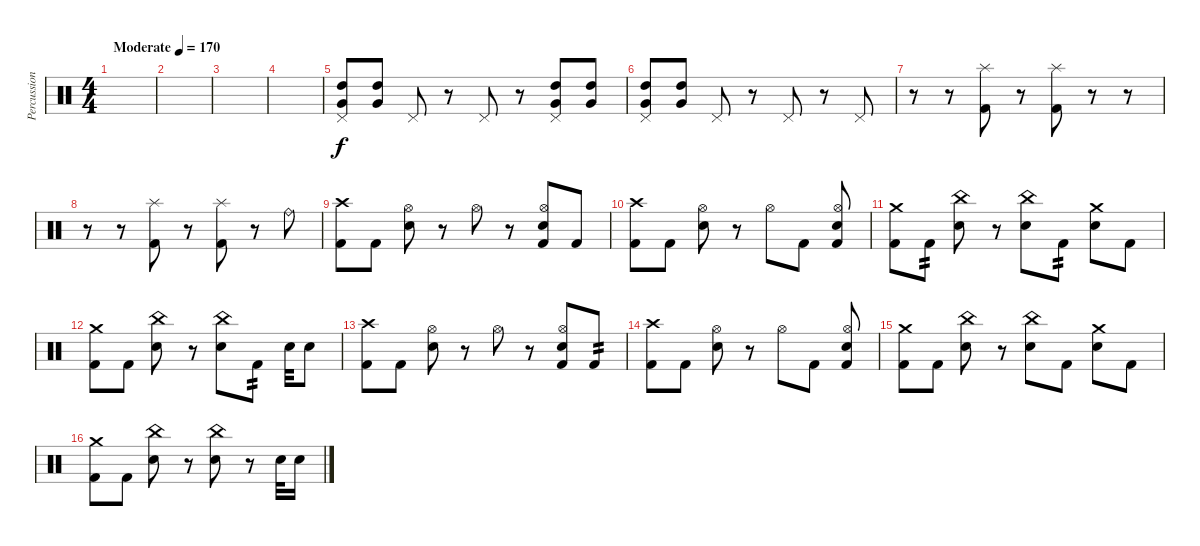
\track ("Percussion" "Percussion") {solo instrument percussion}
\staff {score}
\articulation defaults
\ts (4 4)
\tempo (170 "Moderate")
\clef neutral
\ks c
|
|
|
|
("Very Low Tom (hit)" "High Tom (hit)" "Pedal Hi-Hat (hit)").8 ("Very Low Tom (hit)" "High Tom (hit)").8 "Pedal Hi-Hat (hit)".8 r.8 "Pedal Hi-Hat (hit)".8 r.8 ("Very Low Tom (hit)" "High Tom (hit)" "Pedal Hi-Hat (hit)").8 ("Very Low Tom (hit)" "High Tom (hit)").8 |
("Very Low Tom (hit)" "High Tom (hit)" "Pedal Hi-Hat (hit)").8 ("Very Low Tom (hit)" "High Tom (hit)").8 "Pedal Hi-Hat (hit)".8 r.8 "Pedal Hi-Hat (hit)".8 r.8 "Pedal Hi-Hat (hit)".8 |
r.8 r.8 ("Splash (hit)" "Kick (hit) 2").8 r.8 ("Splash (hit)" "Kick (hit) 2").8 r.8 r.8 |
r.8 r.8 ("Splash (hit)" "Kick (hit) 2").8 r.8 ("Splash (hit)" "Kick (hit) 2").8 r.8 "Ride (bell)".8 |
("Crash high (hit)" "Kick (hit) 2").8 "Kick (hit) 2".8 ("Hi-Hat (open)" "Electric Snare (hit)").8 r.8 "Hi-Hat (open)".8 r.8 ("Hi-Hat (open)" "Kick (hit) 2" "Electric Snare (hit)").8 "Kick (hit) 2".8 |
("Crash high (hit)" "Kick (hit) 2").8 "Kick (hit) 2".8 ("Hi-Hat (open)" "Electric Snare (hit)").8 r.8 "Hi-Hat (open)".8 "Kick (hit) 2".8 ("Hi-Hat (open)" "Kick (hit) 2" "Electric Snare (hit)").8 |
("Crash medium (hit)" "Kick (hit) 2").8 "Kick (hit) 2".8{tp 2} ("China (hit)" "Electric Snare (hit)").8 r.8 ("China (hit)" "Electric Snare (hit)").8 "Kick (hit) 2".8{tp 2} ("Crash medium (hit)" "Electric Snare (hit)").8 "Kick (hit) 2".8 |
("Crash medium (hit)" "Kick (hit) 2").8 "Kick (hit) 2".8 ("China (hit)" "Electric Snare (hit)").8 r.8 ("China (hit)" "Electric Snare (hit)").8 "Kick (hit) 2".8{tp 2} "Electric Snare (hit)".32 "Electric Snare (hit)".8 |
("Crash high (hit)" "Kick (hit) 2").8 "Kick (hit) 2".8 ("Hi-Hat (open)" "Electric Snare (hit)").8 r.8 "Hi-Hat (open)".8 r.8 ("Hi-Hat (open)" "Kick (hit) 2" "Electric Snare (hit)").8 "Kick (hit) 2".8{tp 2} |
("Crash high (hit)" "Kick (hit) 2").8 "Kick (hit) 2".8 ("Hi-Hat (open)" "Electric Snare (hit)").8 r.8 "Hi-Hat (open)".8 "Kick (hit) 2".8 ("Hi-Hat (open)" "Kick (hit) 2" "Electric Snare (hit)").8 |
("Crash medium (hit)" "Kick (hit) 2").8 "Kick (hit) 2".8 ("China (hit)" "Electric Snare (hit)").8 r.8 ("China (hit)" "Electric Snare (hit)").8 "Kick (hit) 2".8 ("Crash medium (hit)" "Electric Snare (hit)").8 "Kick (hit) 2".8 |
("Crash medium (hit)" "Kick (hit) 2").8 "Kick (hit) 2".8 ("China (hit)" "Electric Snare (hit)").8 r.8 ("China (hit)" "Electric Snare (hit)").8 r.8 "Electric Snare (hit)".32 "Electric Snare (hit)".16
